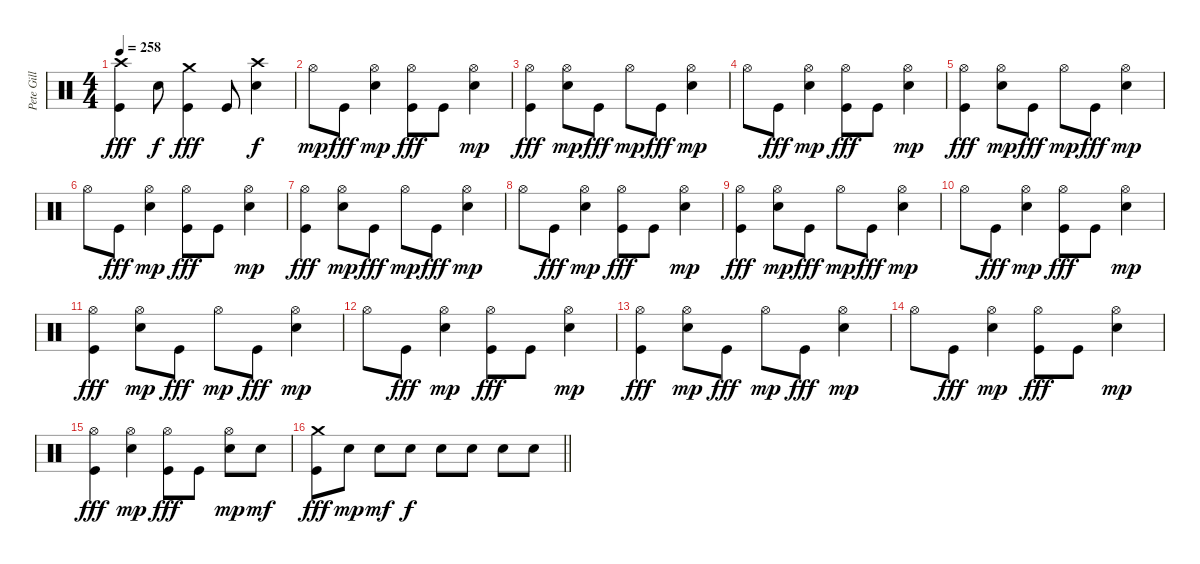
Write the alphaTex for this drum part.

\track ("Pete Gill" "Pete Gill") {instrument percussion}
\staff {score}
\articulation defaults
\ts (4 4)
\tempo 258
\clef neutral
\ks c
("Crash high (hit)" "Kick (hit)").4{dy fff} "Electric Snare (hit)".8{dy f} ("Crash medium (hit)" "Kick (hit)").4{dy fff} "Kick (hit)".8 ("Crash high (hit)" "Electric Snare (hit)").4{dy f} |
"Hi-Hat (open)".8{dy mp} "Kick (hit)".8{dy fff} ("Hi-Hat (open)" "Electric Snare (hit)").4{dy mp} ("Hi-Hat (open)" "Kick (hit)").8{dy fff} "Kick (hit)".8 ("Hi-Hat (open)" "Electric Snare (hit)").4{dy mp} |
("Hi-Hat (open)" "Kick (hit)").4{dy fff} ("Hi-Hat (open)" "Electric Snare (hit)").8{dy mp} "Kick (hit)".8{dy fff} "Hi-Hat (open)".8{dy mp} "Kick (hit)".8{dy fff} ("Hi-Hat (open)" "Electric Snare (hit)").4{dy mp} |
"Hi-Hat (open)".8 "Kick (hit)".8{dy fff} ("Hi-Hat (open)" "Electric Snare (hit)").4{dy mp} ("Hi-Hat (open)" "Kick (hit)").8{dy fff} "Kick (hit)".8 ("Hi-Hat (open)" "Electric Snare (hit)").4{dy mp} |
("Hi-Hat (open)" "Kick (hit)").4{dy fff} ("Hi-Hat (open)" "Electric Snare (hit)").8{dy mp} "Kick (hit)".8{dy fff} "Hi-Hat (open)".8{dy mp} "Kick (hit)".8{dy fff} ("Hi-Hat (open)" "Electric Snare (hit)").4{dy mp} |
"Hi-Hat (open)".8 "Kick (hit)".8{dy fff} ("Hi-Hat (open)" "Electric Snare (hit)").4{dy mp} ("Hi-Hat (open)" "Kick (hit)").8{dy fff} "Kick (hit)".8 ("Hi-Hat (open)" "Electric Snare (hit)").4{dy mp} |
("Hi-Hat (open)" "Kick (hit)").4{dy fff} ("Hi-Hat (open)" "Electric Snare (hit)").8{dy mp} "Kick (hit)".8{dy fff} "Hi-Hat (open)".8{dy mp} "Kick (hit)".8{dy fff} ("Hi-Hat (open)" "Electric Snare (hit)").4{dy mp} |
"Hi-Hat (open)".8 "Kick (hit)".8{dy fff} ("Hi-Hat (open)" "Electric Snare (hit)").4{dy mp} ("Hi-Hat (open)" "Kick (hit)").8{dy fff} "Kick (hit)".8 ("Hi-Hat (open)" "Electric Snare (hit)").4{dy mp} |
("Hi-Hat (open)" "Kick (hit)").4{dy fff} ("Hi-Hat (open)" "Electric Snare (hit)").8{dy mp} "Kick (hit)".8{dy fff} "Hi-Hat (open)".8{dy mp} "Kick (hit)".8{dy fff} ("Hi-Hat (open)" "Electric Snare (hit)").4{dy mp} |
"Hi-Hat (open)".8 "Kick (hit)".8{dy fff} ("Hi-Hat (open)" "Electric Snare (hit)").4{dy mp} ("Hi-Hat (open)" "Kick (hit)").8{dy fff} "Kick (hit)".8 ("Hi-Hat (open)" "Electric Snare (hit)").4{dy mp} |
("Hi-Hat (open)" "Kick (hit)").4{dy fff} ("Hi-Hat (open)" "Electric Snare (hit)").8{dy mp} "Kick (hit)".8{dy fff} "Hi-Hat (open)".8{dy mp} "Kick (hit)".8{dy fff} ("Hi-Hat (open)" "Electric Snare (hit)").4{dy mp} |
"Hi-Hat (open)".8 "Kick (hit)".8{dy fff} ("Hi-Hat (open)" "Electric Snare (hit)").4{dy mp} ("Hi-Hat (open)" "Kick (hit)").8{dy fff} "Kick (hit)".8 ("Hi-Hat (open)" "Electric Snare (hit)").4{dy mp} |
("Hi-Hat (open)" "Kick (hit)").4{dy fff} ("Hi-Hat (open)" "Electric Snare (hit)").8{dy mp} "Kick (hit)".8{dy fff} "Hi-Hat (open)".8{dy mp} "Kick (hit)".8{dy fff} ("Hi-Hat (open)" "Electric Snare (hit)").4{dy mp} |
"Hi-Hat (open)".8 "Kick (hit)".8{dy fff} ("Hi-Hat (open)" "Electric Snare (hit)").4{dy mp} ("Hi-Hat (open)" "Kick (hit)").8{dy fff} "Kick (hit)".8 ("Hi-Hat (open)" "Electric Snare (hit)").4{dy mp} |
("Hi-Hat (open)" "Kick (hit)").4{dy fff} ("Hi-Hat (open)" "Electric Snare (hit)").4{dy mp} ("Hi-Hat (open)" "Kick (hit)").8{dy fff} "Kick (hit)".8 ("Hi-Hat (open)" "Electric Snare (hit)").8{dy mp} "Electric Snare (hit)".8{dy mf} |
\barLineRight lightlight
("Crash medium (hit)" "Kick (hit)").8{dy fff} "Electric Snare (hit)".8{dy mp} "Electric Snare (hit)".8{dy mf} "Electric Snare (hit)".8{dy f} "Electric Snare (hit)".8 "Electric Snare (hit)".8 "Electric Snare (hit)".8 "Electric Snare (hit)".8
